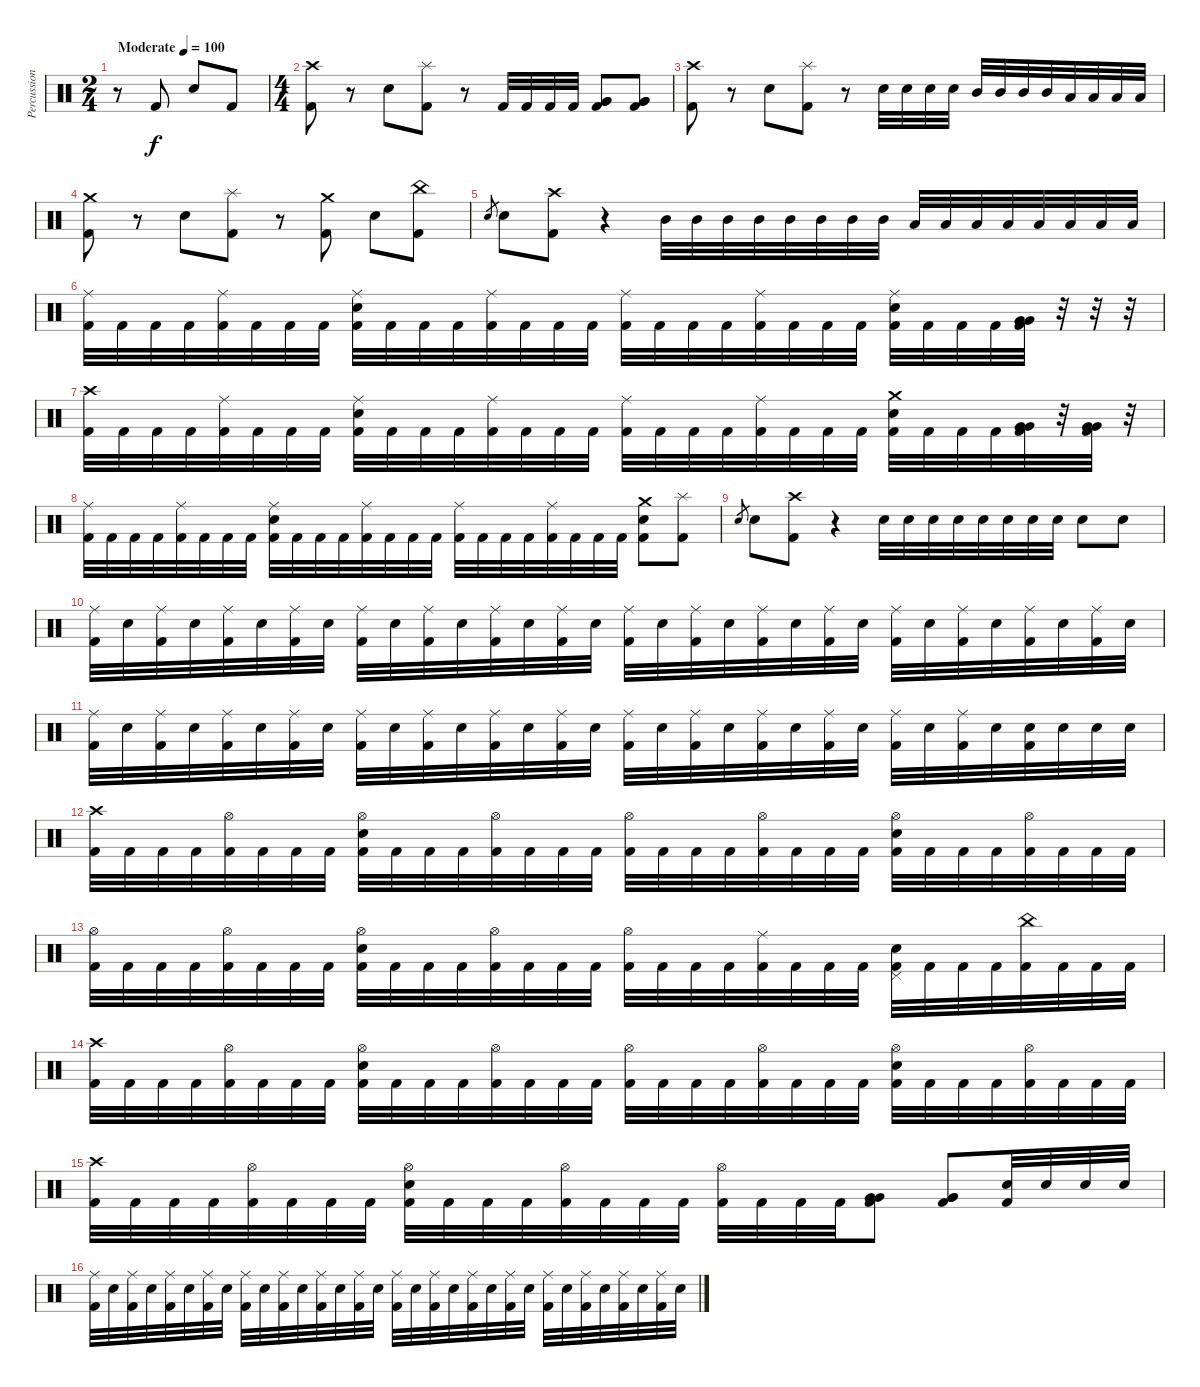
\track ("Percussions" "Percussion") {instrument percussion}
\staff {score}
\articulation defaults
\ts (2 4)
\tempo (100 "Moderate")
\clef neutral
\ks c
r.8{dy f} "Kick (hit) 2".8 "Electric Snare (hit)".8 "Kick (hit) 2".8 |
\ts (4 4)
("Kick (hit) 2" "Crash high (hit)").8 r.8 "Electric Snare (hit)".8 ("Kick (hit) 2" "Splash (hit)").8 r.8 "Kick (hit) 2".32 "Kick (hit) 2".32 "Kick (hit) 2".32 "Kick (hit) 2".32 ("Kick (hit) 2" "Very Low Tom (hit)" "Very Low Tom (hit)").8 ("Kick (hit) 2" "Very Low Tom (hit)" "Very Low Tom (hit)").8 |
("Kick (hit) 2" "Crash high (hit)").8 r.8 "Electric Snare (hit)".8 ("Kick (hit) 2" "Splash (hit)").8 r.8 "Electric Snare (hit)".32 "Electric Snare (hit)".32 "Electric Snare (hit)".32 "Electric Snare (hit)".32 "Mid Tom (hit)".32 "Mid Tom (hit)".32 "Mid Tom (hit)".32 "Mid Tom (hit)".32 "Low Tom (hit)".32 "Low Tom (hit)".32 "Low Tom (hit)".32 "Low Tom (hit)".32 |
("Kick (hit) 2" "Crash medium (hit)").8 r.8 "Electric Snare (hit)".8 ("Kick (hit) 2" "Splash (hit)").8 r.8 ("Kick (hit) 2" "Crash medium (hit)").8 "Electric Snare (hit)".8 ("Kick (hit) 2" "China (hit)").8 |
"Electric Snare (hit)".8{gr} "Electric Snare (hit)".8 ("Kick (hit) 2" "Crash high (hit)").8 r.4 "Mid Tom (hit)".32 "Mid Tom (hit)".32 "Mid Tom (hit)".32 "Mid Tom (hit)".32 "Mid Tom (hit)".32 "Mid Tom (hit)".32 "Mid Tom (hit)".32 "Mid Tom (hit)".32 "Low Tom (hit)".32 "Low Tom (hit)".32 "Low Tom (hit)".32 "Low Tom (hit)".32 "Low Tom (hit)".32 "Low Tom (hit)".32 "Low Tom (hit)".32 "Low Tom (hit)".32 |
("Kick (hit) 2" "Ride (middle)").32 "Kick (hit) 2".32 "Kick (hit) 2".32 "Kick (hit) 2".32 ("Kick (hit) 2" "Ride (middle)").32 "Kick (hit) 2".32 "Kick (hit) 2".32 "Kick (hit) 2".32 ("Kick (hit) 2" "Ride (middle)" "Electric Snare (hit)").32 "Kick (hit) 2".32 "Kick (hit) 2".32 "Kick (hit) 2".32 ("Kick (hit) 2" "Ride (middle)").32 "Kick (hit) 2".32 "Kick (hit) 2".32 "Kick (hit) 2".32 ("Kick (hit) 2" "Ride (middle)").32 "Kick (hit) 2".32 "Kick (hit) 2".32 "Kick (hit) 2".32 ("Kick (hit) 2" "Ride (middle)").32 "Kick (hit) 2".32 "Kick (hit) 2".32 "Kick (hit) 2".32 ("Kick (hit) 2" "Ride (middle)" "Electric Snare (hit)").32 "Kick (hit) 2".32 "Kick (hit) 2".32 "Kick (hit) 2".32 ("Kick (hit) 2" "Very Low Tom (hit)" "Very Low Tom (hit)").32 r.32 r.32 r.32 |
("Kick (hit) 2" "Crash high (hit)").32 "Kick (hit) 2".32 "Kick (hit) 2".32 "Kick (hit) 2".32 ("Kick (hit) 2" "Ride (middle)").32 "Kick (hit) 2".32 "Kick (hit) 2".32 "Kick (hit) 2".32 ("Kick (hit) 2" "Ride (middle)" "Electric Snare (hit)").32 "Kick (hit) 2".32 "Kick (hit) 2".32 "Kick (hit) 2".32 ("Kick (hit) 2" "Ride (middle)").32 "Kick (hit) 2".32 "Kick (hit) 2".32 "Kick (hit) 2".32 ("Kick (hit) 2" "Ride (middle)").32 "Kick (hit) 2".32 "Kick (hit) 2".32 "Kick (hit) 2".32 ("Kick (hit) 2" "Ride (middle)").32 "Kick (hit) 2".32 "Kick (hit) 2".32 "Kick (hit) 2".32 ("Kick (hit) 2" "Crash medium (hit)" "Electric Snare (hit)").32 "Kick (hit) 2".32 "Kick (hit) 2".32 "Kick (hit) 2".32 ("Kick (hit) 2" "Very Low Tom (hit)" "Very Low Tom (hit)").32 r.32 ("Kick (hit) 2" "Very Low Tom (hit)" "Very Low Tom (hit)").32 r.32 |
("Kick (hit) 2" "Ride (middle)").32 "Kick (hit) 2".32 "Kick (hit) 2".32 "Kick (hit) 2".32 ("Kick (hit) 2" "Ride (middle)").32 "Kick (hit) 2".32 "Kick (hit) 2".32 "Kick (hit) 2".32 ("Kick (hit) 2" "Ride (middle)" "Electric Snare (hit)").32 "Kick (hit) 2".32 "Kick (hit) 2".32 "Kick (hit) 2".32 ("Kick (hit) 2" "Ride (middle)").32 "Kick (hit) 2".32 "Kick (hit) 2".32 "Kick (hit) 2".32 ("Kick (hit) 2" "Ride (middle)").32 "Kick (hit) 2".32 "Kick (hit) 2".32 "Kick (hit) 2".32 ("Kick (hit) 2" "Ride (middle)").32 "Kick (hit) 2".32 "Kick (hit) 2".32 "Kick (hit) 2".32 ("Kick (hit) 2" "Crash medium (hit)" "Electric Snare (hit)").8 ("Kick (hit) 2" "Splash (hit)").8 |
"Electric Snare (hit)".8{gr} "Electric Snare (hit)".8 ("Crash high (hit)" "Kick (hit) 2").8 r.4 "Electric Snare (hit)".32 "Electric Snare (hit)".32 "Electric Snare (hit)".32 "Electric Snare (hit)".32 "Electric Snare (hit)".32 "Electric Snare (hit)".32 "Electric Snare (hit)".32 "Electric Snare (hit)".32 "Electric Snare (hit)".8 "Electric Snare (hit)".8 |
("Kick (hit) 2" "Ride (middle)").32 "Electric Snare (hit)".32 ("Kick (hit) 2" "Ride (middle)").32 "Electric Snare (hit)".32 ("Kick (hit) 2" "Ride (middle)").32 "Electric Snare (hit)".32 ("Kick (hit) 2" "Ride (middle)").32 "Electric Snare (hit)".32 ("Kick (hit) 2" "Ride (middle)").32 "Electric Snare (hit)".32 ("Kick (hit) 2" "Ride (middle)").32 "Electric Snare (hit)".32 ("Kick (hit) 2" "Ride (middle)").32 "Electric Snare (hit)".32 ("Kick (hit) 2" "Ride (middle)").32 "Electric Snare (hit)".32 ("Kick (hit) 2" "Ride (middle)").32 "Electric Snare (hit)".32 ("Kick (hit) 2" "Ride (middle)").32 "Electric Snare (hit)".32 ("Kick (hit) 2" "Ride (middle)").32 "Electric Snare (hit)".32 ("Kick (hit) 2" "Ride (middle)").32 "Electric Snare (hit)".32 ("Kick (hit) 2" "Ride (middle)").32 "Electric Snare (hit)".32 ("Kick (hit) 2" "Ride (middle)").32 "Electric Snare (hit)".32 ("Kick (hit) 2" "Ride (middle)").32 "Electric Snare (hit)".32 ("Kick (hit) 2" "Ride (middle)").32 "Electric Snare (hit)".32 |
("Kick (hit) 2" "Ride (middle)").32 "Electric Snare (hit)".32 ("Kick (hit) 2" "Ride (middle)").32 "Electric Snare (hit)".32 ("Kick (hit) 2" "Ride (middle)").32 "Electric Snare (hit)".32 ("Kick (hit) 2" "Ride (middle)").32 "Electric Snare (hit)".32 ("Kick (hit) 2" "Ride (middle)").32 "Electric Snare (hit)".32 ("Kick (hit) 2" "Ride (middle)").32 "Electric Snare (hit)".32 ("Kick (hit) 2" "Ride (middle)").32 "Electric Snare (hit)".32 ("Kick (hit) 2" "Ride (middle)").32 "Electric Snare (hit)".32 ("Kick (hit) 2" "Ride (middle)").32 "Electric Snare (hit)".32 ("Kick (hit) 2" "Ride (middle)").32 "Electric Snare (hit)".32 ("Kick (hit) 2" "Ride (middle)").32 "Electric Snare (hit)".32 ("Kick (hit) 2" "Ride (middle)").32 "Electric Snare (hit)".32 ("Kick (hit) 2" "Ride (middle)").32 "Electric Snare (hit)".32 ("Kick (hit) 2" "Ride (middle)").32 "Electric Snare (hit)".32 ("Kick (hit) 2" "Electric Snare (hit)").32 "Electric Snare (hit)".32 "Electric Snare (hit)".32 "Electric Snare (hit)".32 |
("Kick (hit) 2" "Crash high (hit)").32 "Kick (hit) 2".32 "Kick (hit) 2".32 "Kick (hit) 2".32 ("Kick (hit) 2" "Hi-Hat (open)").32 "Kick (hit) 2".32 "Kick (hit) 2".32 "Kick (hit) 2".32 ("Kick (hit) 2" "Hi-Hat (open)" "Electric Snare (hit)").32 "Kick (hit) 2".32 "Kick (hit) 2".32 "Kick (hit) 2".32 ("Kick (hit) 2" "Hi-Hat (open)").32 "Kick (hit) 2".32 "Kick (hit) 2".32 "Kick (hit) 2".32 ("Kick (hit) 2" "Hi-Hat (open)").32 "Kick (hit) 2".32 "Kick (hit) 2".32 "Kick (hit) 2".32 ("Kick (hit) 2" "Hi-Hat (open)").32 "Kick (hit) 2".32 "Kick (hit) 2".32 "Kick (hit) 2".32 ("Kick (hit) 2" "Hi-Hat (open)" "Electric Snare (hit)").32 "Kick (hit) 2".32 "Kick (hit) 2".32 "Kick (hit) 2".32 ("Kick (hit) 2" "Hi-Hat (open)").32 "Kick (hit) 2".32 "Kick (hit) 2".32 "Kick (hit) 2".32 |
("Kick (hit) 2" "Hi-Hat (open)").32 "Kick (hit) 2".32 "Kick (hit) 2".32 "Kick (hit) 2".32 ("Kick (hit) 2" "Hi-Hat (open)").32 "Kick (hit) 2".32 "Kick (hit) 2".32 "Kick (hit) 2".32 ("Kick (hit) 2" "Hi-Hat (open)" "Electric Snare (hit)").32 "Kick (hit) 2".32 "Kick (hit) 2".32 "Kick (hit) 2".32 ("Kick (hit) 2" "Hi-Hat (open)").32 "Kick (hit) 2".32 "Kick (hit) 2".32 "Kick (hit) 2".32 ("Kick (hit) 2" "Hi-Hat (open)").32 "Kick (hit) 2".32 "Kick (hit) 2".32 "Kick (hit) 2".32 ("Kick (hit) 2" "Ride (middle)").32 "Kick (hit) 2".32 "Kick (hit) 2".32 "Kick (hit) 2".32 ("Kick (hit) 2" "Pedal Hi-Hat (hit)" "Electric Snare (hit)").32 "Kick (hit) 2".32 "Kick (hit) 2".32 "Kick (hit) 2".32 ("Kick (hit) 2" "China (hit)").32 "Kick (hit) 2".32 "Kick (hit) 2".32 "Kick (hit) 2".32 |
("Kick (hit) 2" "Crash high (hit)").32 "Kick (hit) 2".32 "Kick (hit) 2".32 "Kick (hit) 2".32 ("Kick (hit) 2" "Hi-Hat (open)").32 "Kick (hit) 2".32 "Kick (hit) 2".32 "Kick (hit) 2".32 ("Kick (hit) 2" "Hi-Hat (open)" "Electric Snare (hit)").32 "Kick (hit) 2".32 "Kick (hit) 2".32 "Kick (hit) 2".32 ("Kick (hit) 2" "Hi-Hat (open)").32 "Kick (hit) 2".32 "Kick (hit) 2".32 "Kick (hit) 2".32 ("Kick (hit) 2" "Hi-Hat (open)").32 "Kick (hit) 2".32 "Kick (hit) 2".32 "Kick (hit) 2".32 ("Kick (hit) 2" "Hi-Hat (open)").32 "Kick (hit) 2".32 "Kick (hit) 2".32 "Kick (hit) 2".32 ("Kick (hit) 2" "Hi-Hat (open)" "Electric Snare (hit)").32 "Kick (hit) 2".32 "Kick (hit) 2".32 "Kick (hit) 2".32 ("Kick (hit) 2" "Hi-Hat (open)").32 "Kick (hit) 2".32 "Kick (hit) 2".32 "Kick (hit) 2".32 |
("Kick (hit) 2" "Crash high (hit)").32 "Kick (hit) 2".32 "Kick (hit) 2".32 "Kick (hit) 2".32 ("Kick (hit) 2" "Hi-Hat (open)").32 "Kick (hit) 2".32 "Kick (hit) 2".32 "Kick (hit) 2".32 ("Kick (hit) 2" "Hi-Hat (open)" "Electric Snare (hit)").32 "Kick (hit) 2".32 "Kick (hit) 2".32 "Kick (hit) 2".32 ("Kick (hit) 2" "Hi-Hat (open)").32 "Kick (hit) 2".32 "Kick (hit) 2".32 "Kick (hit) 2".32 ("Kick (hit) 2" "Hi-Hat (open)").32 "Kick (hit) 2".32 "Kick (hit) 2".32 "Kick (hit) 2".32 ("Kick (hit) 2" "Very Low Tom (hit)" "Very Low Tom (hit)").8 ("Kick (hit) 2" "Very Low Tom (hit)" "Very Low Tom (hit)").8 ("Kick (hit) 2" "Electric Snare (hit)").32 "Electric Snare (hit)".32 "Electric Snare (hit)".32 "Electric Snare (hit)".32 |
("Kick (hit) 2" "Ride (middle)").32 "Electric Snare (hit)".32 ("Kick (hit) 2" "Ride (middle)").32 "Electric Snare (hit)".32 ("Kick (hit) 2" "Ride (middle)").32 "Electric Snare (hit)".32 ("Kick (hit) 2" "Ride (middle)").32 "Electric Snare (hit)".32 ("Kick (hit) 2" "Ride (middle)").32 "Electric Snare (hit)".32 ("Kick (hit) 2" "Ride (middle)").32 "Electric Snare (hit)".32 ("Kick (hit) 2" "Ride (middle)").32 "Electric Snare (hit)".32 ("Kick (hit) 2" "Ride (middle)").32 "Electric Snare (hit)".32 ("Kick (hit) 2" "Ride (middle)").32 "Electric Snare (hit)".32 ("Kick (hit) 2" "Ride (middle)").32 "Electric Snare (hit)".32 ("Kick (hit) 2" "Ride (middle)").32 "Electric Snare (hit)".32 ("Kick (hit) 2" "Ride (middle)").32 "Electric Snare (hit)".32 ("Kick (hit) 2" "Ride (middle)").32 "Electric Snare (hit)".32 ("Kick (hit) 2" "Ride (middle)").32 "Electric Snare (hit)".32 ("Kick (hit) 2" "Ride (middle)").32 "Electric Snare (hit)".32 ("Kick (hit) 2" "Ride (middle)").32 "Electric Snare (hit)".32
